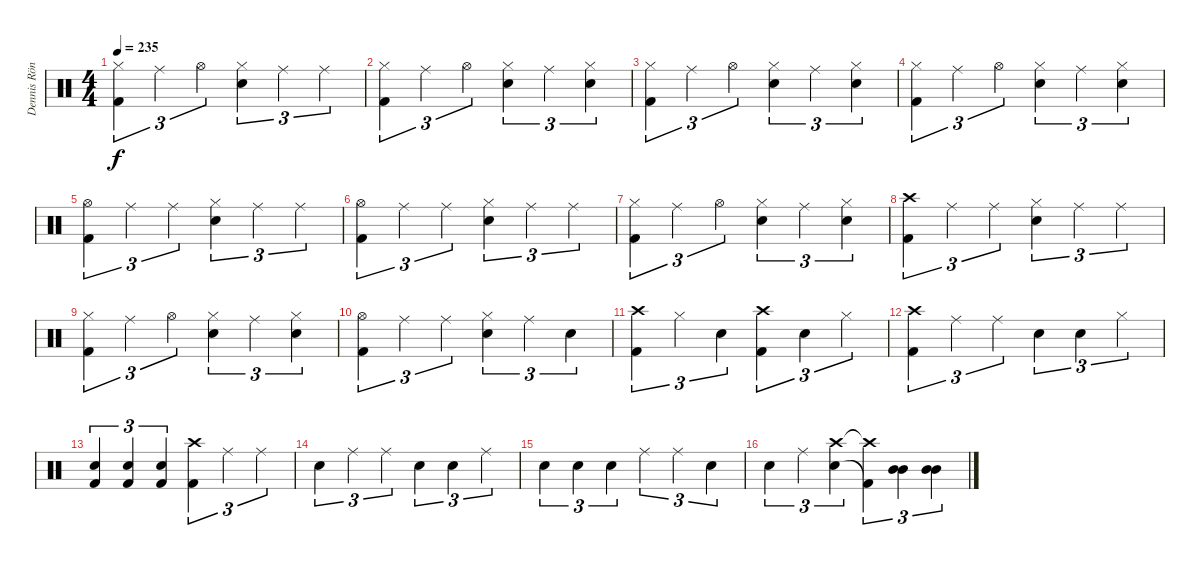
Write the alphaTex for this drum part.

\track ("Dennis Röndum" "Dennis Rön") {instrument percussion}
\staff {score}
\articulation defaults
\ts (4 4)
\tempo 235
\clef neutral
\ks c
("Hi-Hat (closed)" "Kick (hit) 2").4{tu (3 2) dy f} "Ride (middle)".4{tu (3 2)} "Hi-Hat (open)".4{tu (3 2)} ("Hi-Hat (closed)" "Snare (hit) 2").4{tu (3 2)} "Ride (middle)".4{tu (3 2)} "Ride (middle)".4{tu (3 2)} |
("Hi-Hat (closed)" "Kick (hit) 2").4{tu (3 2)} "Ride (middle)".4{tu (3 2)} "Hi-Hat (open)".4{tu (3 2)} ("Hi-Hat (closed)" "Snare (hit) 2").4{tu (3 2)} "Ride (middle)".4{tu (3 2)} ("Hi-Hat (closed)" "Snare (hit) 2").4{tu (3 2)} |
("Hi-Hat (closed)" "Kick (hit) 2").4{tu (3 2)} "Ride (middle)".4{tu (3 2)} "Hi-Hat (open)".4{tu (3 2)} ("Hi-Hat (closed)" "Snare (hit) 2").4{tu (3 2)} "Ride (middle)".4{tu (3 2)} ("Hi-Hat (closed)" "Snare (hit) 2").4{tu (3 2)} |
("Hi-Hat (closed)" "Kick (hit) 2").4{tu (3 2)} "Ride (middle)".4{tu (3 2)} "Hi-Hat (open)".4{tu (3 2)} ("Hi-Hat (closed)" "Snare (hit) 2").4{tu (3 2)} "Ride (middle)".4{tu (3 2)} ("Hi-Hat (closed)" "Snare (hit) 2").4{tu (3 2)} |
("Hi-Hat (open)" "Kick (hit) 2").4{tu (3 2)} "Ride (middle)".4{tu (3 2)} "Ride (middle)".4{tu (3 2)} ("Hi-Hat (closed)" "Snare (hit) 2").4{tu (3 2)} "Ride (middle)".4{tu (3 2)} "Ride (middle)".4{tu (3 2)} |
("Hi-Hat (open)" "Kick (hit) 2").4{tu (3 2)} "Ride (middle)".4{tu (3 2)} "Ride (middle)".4{tu (3 2)} ("Hi-Hat (closed)" "Snare (hit) 2").4{tu (3 2)} "Ride (middle)".4{tu (3 2)} "Ride (middle)".4{tu (3 2)} |
("Hi-Hat (closed)" "Kick (hit) 2").4{tu (3 2)} "Ride (middle)".4{tu (3 2)} "Hi-Hat (open)".4{tu (3 2)} ("Hi-Hat (closed)" "Snare (hit) 2").4{tu (3 2)} "Ride (middle)".4{tu (3 2)} ("Hi-Hat (closed)" "Snare (hit) 2").4{tu (3 2)} |
("Crash high (hit)" "Kick (hit) 2").4{tu (3 2)} "Ride (middle)".4{tu (3 2)} "Ride (middle)".4{tu (3 2)} ("Hi-Hat (closed)" "Snare (hit) 2").4{tu (3 2)} "Ride (middle)".4{tu (3 2)} "Ride (middle)".4{tu (3 2)} |
("Hi-Hat (closed)" "Kick (hit) 2").4{tu (3 2)} "Ride (middle)".4{tu (3 2)} "Hi-Hat (open)".4{tu (3 2)} ("Hi-Hat (closed)" "Snare (hit) 2").4{tu (3 2)} "Ride (middle)".4{tu (3 2)} ("Hi-Hat (closed)" "Snare (hit) 2").4{tu (3 2)} |
("Hi-Hat (open)" "Kick (hit) 2").4{tu (3 2)} "Ride (middle)".4{tu (3 2)} "Ride (middle)".4{tu (3 2)} ("Hi-Hat (closed)" "Snare (hit) 2").4{tu (3 2)} "Ride (middle)".4{tu (3 2)} "Snare (hit) 2".4{tu (3 2)} |
("Crash high (hit)" "Kick (hit) 2").4{tu (3 2)} "Hi-Hat (closed)".4{tu (3 2)} "Snare (hit) 2".4{tu (3 2)} ("Kick (hit) 2" "Crash high (hit)").4{tu (3 2)} "Snare (hit) 2".4{tu (3 2)} "Hi-Hat (closed)".4{tu (3 2)} |
("Crash high (hit)" "Kick (hit) 2").4{tu (3 2)} "Ride (middle)".4{tu (3 2)} "Ride (middle)".4{tu (3 2)} "Snare (hit) 2".4{tu (3 2)} "Snare (hit) 2".4{tu (3 2)} "Hi-Hat (closed)".4{tu (3 2)} |
("Snare (hit) 2" "Kick (hit) 2").4{tu (3 2)} ("Snare (hit) 2" "Kick (hit) 2").4{tu (3 2)} ("Snare (hit) 2" "Kick (hit) 2").4{tu (3 2)} ("Crash high (hit)" "Kick (hit) 2").4{tu (3 2)} "Ride (middle)".4{tu (3 2)} "Ride (middle)".4{tu (3 2)} |
"Snare (hit) 2".4{tu (3 2)} "Ride (middle)".4{tu (3 2)} "Ride (middle)".4{tu (3 2)} "Snare (hit) 2".4{tu (3 2)} "Snare (hit) 2".4{tu (3 2)} "Ride (middle)".4{tu (3 2)} |
"Snare (hit) 2".4{tu (3 2)} "Snare (hit) 2".4{tu (3 2)} "Snare (hit) 2".4{tu (3 2)} "Ride (middle)".4{tu (3 2)} "Ride (middle)".4{tu (3 2)} "Snare (hit) 2".4{tu (3 2)} |
"Snare (hit) 2".4{tu (3 2)} "Ride (middle)".4{tu (3 2)} ("Crash high (hit)" "Snare (hit) 2").4{tu (3 2)} ("Crash high (hit)"{t} "Kick (hit) 2"{t}).4{tu (3 2)} ("Mid Tom (hit)" "Mid Tom (hit)").4{tu (3 2)} ("Mid Tom (hit)" "Mid Tom (hit)").4{tu (3 2)}
